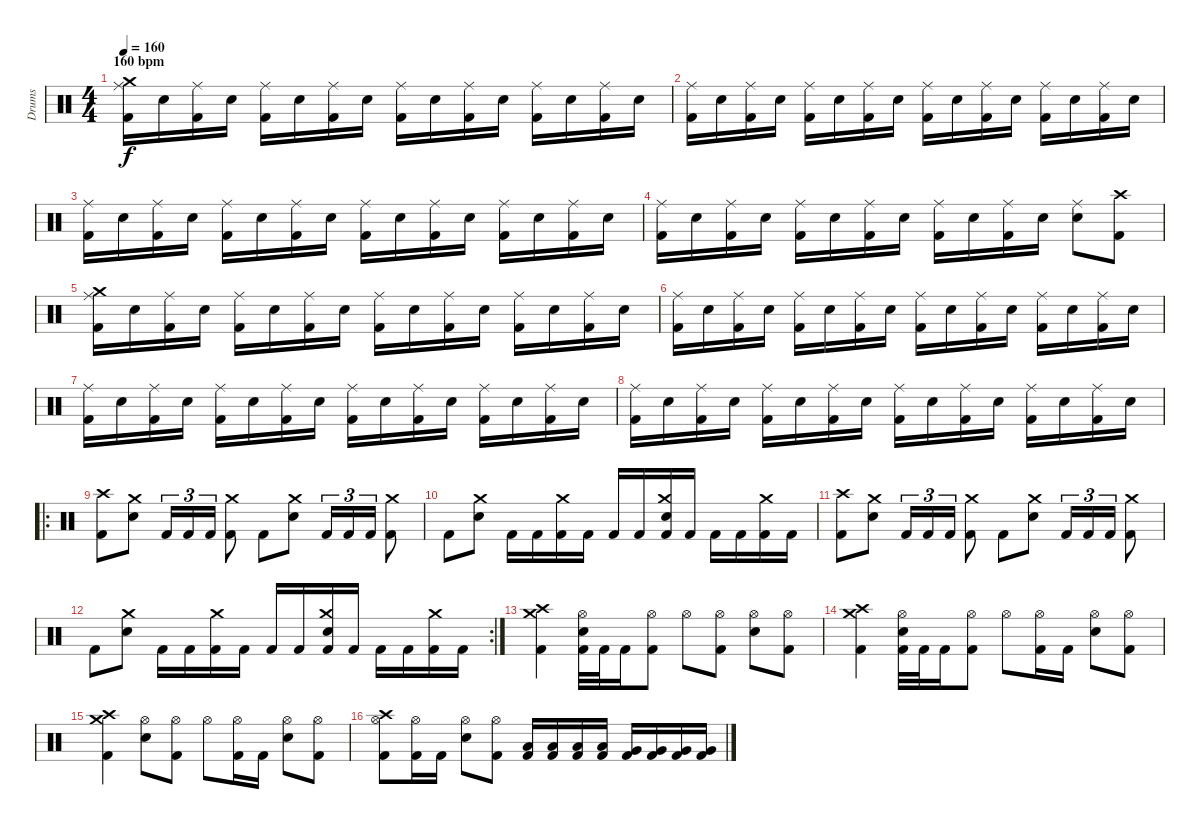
\track ("Drums" "Drums") {instrument percussion}
\staff {score}
\articulation defaults
\ts (4 4)
\section ("" "160 bpm")
\tempo 160
\clef neutral
\ks c
("Kick (hit) 2" "Ride (middle)" "Crash medium (hit)").16{dy f} "Electric Snare (hit)".16 ("Kick (hit) 2" "Ride (middle)").16 "Electric Snare (hit)".16 ("Kick (hit) 2" "Ride (middle)").16 "Electric Snare (hit)".16 ("Kick (hit) 2" "Ride (middle)").16 "Electric Snare (hit)".16 ("Kick (hit) 2" "Ride (middle)").16 "Electric Snare (hit)".16 ("Kick (hit) 2" "Ride (middle)").16 "Electric Snare (hit)".16 ("Kick (hit) 2" "Ride (middle)").16 "Electric Snare (hit)".16 ("Kick (hit) 2" "Ride (middle)").16 "Electric Snare (hit)".16 |
("Kick (hit) 2" "Ride (middle)").16 "Electric Snare (hit)".16 ("Kick (hit) 2" "Ride (middle)").16 "Electric Snare (hit)".16 ("Kick (hit) 2" "Ride (middle)").16 "Electric Snare (hit)".16 ("Kick (hit) 2" "Ride (middle)").16 "Electric Snare (hit)".16 ("Kick (hit) 2" "Ride (middle)").16 "Electric Snare (hit)".16 ("Kick (hit) 2" "Ride (middle)").16 "Electric Snare (hit)".16 ("Kick (hit) 2" "Ride (middle)").16 "Electric Snare (hit)".16 ("Kick (hit) 2" "Ride (middle)").16 "Electric Snare (hit)".16 |
("Kick (hit) 2" "Ride (middle)").16 "Electric Snare (hit)".16 ("Kick (hit) 2" "Ride (middle)").16 "Electric Snare (hit)".16 ("Kick (hit) 2" "Ride (middle)").16 "Electric Snare (hit)".16 ("Kick (hit) 2" "Ride (middle)").16 "Electric Snare (hit)".16 ("Kick (hit) 2" "Ride (middle)").16 "Electric Snare (hit)".16 ("Kick (hit) 2" "Ride (middle)").16 "Electric Snare (hit)".16 ("Kick (hit) 2" "Ride (middle)").16 "Electric Snare (hit)".16 ("Kick (hit) 2" "Ride (middle)").16 "Electric Snare (hit)".16 |
("Kick (hit) 2" "Ride (middle)").16 "Electric Snare (hit)".16 ("Kick (hit) 2" "Ride (middle)").16 "Electric Snare (hit)".16 ("Kick (hit) 2" "Ride (middle)").16 "Electric Snare (hit)".16 ("Kick (hit) 2" "Ride (middle)").16 "Electric Snare (hit)".16 ("Kick (hit) 2" "Ride (middle)").16 "Electric Snare (hit)".16 ("Kick (hit) 2" "Ride (middle)").16 "Electric Snare (hit)".16 ("Electric Snare (hit)" "Ride (middle)").8 ("Kick (hit) 2" "Crash high (hit)").8 |
("Kick (hit) 2" "Ride (middle)" "Crash medium (hit)").16 "Electric Snare (hit)".16 ("Kick (hit) 2" "Ride (middle)").16 "Electric Snare (hit)".16 ("Kick (hit) 2" "Ride (middle)").16 "Electric Snare (hit)".16 ("Kick (hit) 2" "Ride (middle)").16 "Electric Snare (hit)".16 ("Kick (hit) 2" "Ride (middle)").16 "Electric Snare (hit)".16 ("Kick (hit) 2" "Ride (middle)").16 "Electric Snare (hit)".16 ("Kick (hit) 2" "Ride (middle)").16 "Electric Snare (hit)".16 ("Kick (hit) 2" "Ride (middle)").16 "Electric Snare (hit)".16 |
("Kick (hit) 2" "Ride (middle)").16 "Electric Snare (hit)".16 ("Kick (hit) 2" "Ride (middle)").16 "Electric Snare (hit)".16 ("Kick (hit) 2" "Ride (middle)").16 "Electric Snare (hit)".16 ("Kick (hit) 2" "Ride (middle)").16 "Electric Snare (hit)".16 ("Kick (hit) 2" "Ride (middle)").16 "Electric Snare (hit)".16 ("Kick (hit) 2" "Ride (middle)").16 "Electric Snare (hit)".16 ("Kick (hit) 2" "Ride (middle)").16 "Electric Snare (hit)".16 ("Kick (hit) 2" "Ride (middle)").16 "Electric Snare (hit)".16 |
("Kick (hit) 2" "Ride (middle)").16 "Electric Snare (hit)".16 ("Kick (hit) 2" "Ride (middle)").16 "Electric Snare (hit)".16 ("Kick (hit) 2" "Ride (middle)").16 "Electric Snare (hit)".16 ("Kick (hit) 2" "Ride (middle)").16 "Electric Snare (hit)".16 ("Kick (hit) 2" "Ride (middle)").16 "Electric Snare (hit)".16 ("Kick (hit) 2" "Ride (middle)").16 "Electric Snare (hit)".16 ("Kick (hit) 2" "Ride (middle)").16 "Electric Snare (hit)".16 ("Kick (hit) 2" "Ride (middle)").16 "Electric Snare (hit)".16 |
("Kick (hit) 2" "Ride (middle)").16 "Electric Snare (hit)".16 ("Kick (hit) 2" "Ride (middle)").16 "Electric Snare (hit)".16 ("Kick (hit) 2" "Ride (middle)").16 "Electric Snare (hit)".16 ("Kick (hit) 2" "Ride (middle)").16 "Electric Snare (hit)".16 ("Kick (hit) 2" "Ride (middle)").16 "Electric Snare (hit)".16 ("Kick (hit) 2" "Ride (middle)").16 "Electric Snare (hit)".16 ("Kick (hit) 2" "Ride (middle)").16 "Electric Snare (hit)".16 ("Kick (hit) 2" "Ride (middle)").16 "Electric Snare (hit)".16 |
\ro
("Kick (hit) 2" "Crash high (hit)").8 ("Electric Snare (hit)" "Crash medium (hit)").8 "Kick (hit) 2".16{tu (3 2)} "Kick (hit) 2".16{tu (3 2)} "Kick (hit) 2".16{tu (3 2)} ("Kick (hit) 2" "Crash medium (hit)").8 "Kick (hit) 2".8 ("Electric Snare (hit)" "Crash medium (hit)").8 "Kick (hit) 2".16{tu (3 2)} "Kick (hit) 2".16{tu (3 2)} "Kick (hit) 2".16{tu (3 2)} ("Kick (hit) 2" "Crash medium (hit)").8 |
"Kick (hit) 2".8 ("Electric Snare (hit)" "Crash medium (hit)").8 "Kick (hit) 2".16 "Kick (hit) 2".16 ("Kick (hit) 2" "Crash medium (hit)").16 "Kick (hit) 2".16 "Kick (hit) 2".16 "Kick (hit) 2".16 ("Kick (hit) 2" "Electric Snare (hit)" "Crash medium (hit)").16 "Kick (hit) 2".16 "Kick (hit) 2".16 "Kick (hit) 2".16 ("Kick (hit) 2" "Crash medium (hit)").16 "Kick (hit) 2".16 |
("Kick (hit) 2" "Crash high (hit)").8 ("Electric Snare (hit)" "Crash medium (hit)").8 "Kick (hit) 2".16{tu (3 2)} "Kick (hit) 2".16{tu (3 2)} "Kick (hit) 2".16{tu (3 2)} ("Kick (hit) 2" "Crash medium (hit)").8 "Kick (hit) 2".8 ("Electric Snare (hit)" "Crash medium (hit)").8 "Kick (hit) 2".16{tu (3 2)} "Kick (hit) 2".16{tu (3 2)} "Kick (hit) 2".16{tu (3 2)} ("Kick (hit) 2" "Crash medium (hit)").8 |
\rc 2 "Kick (hit) 2".8
("Electric Snare (hit)" "Crash medium (hit)").8 "Kick (hit) 2".16 "Kick (hit) 2".16 ("Kick (hit) 2" "Crash medium (hit)").16 "Kick (hit) 2".16 "Kick (hit) 2".16 "Kick (hit) 2".16 ("Kick (hit) 2" "Electric Snare (hit)" "Crash medium (hit)").16 "Kick (hit) 2".16 "Kick (hit) 2".16 "Kick (hit) 2".16 ("Kick (hit) 2" "Crash medium (hit)").16 "Kick (hit) 2".16 |
("Kick (hit) 2" "Crash medium (hit)" "Crash high (hit)").4 ("Kick (hit) 2" "Electric Snare (hit)" "Hi-Hat (open)").32 "Kick (hit) 2".32 "Kick (hit) 2".16 ("Kick (hit) 2" "Hi-Hat (open)").8 "Hi-Hat (open)".8 ("Kick (hit) 2" "Hi-Hat (open)").8 ("Electric Snare (hit)" "Hi-Hat (open)").8 ("Kick (hit) 2" "Hi-Hat (open)").8 |
("Kick (hit) 2" "Crash medium (hit)" "Crash high (hit)").4 ("Kick (hit) 2" "Electric Snare (hit)" "Hi-Hat (open)").32 "Kick (hit) 2".32 "Kick (hit) 2".16 ("Kick (hit) 2" "Hi-Hat (open)").8 "Hi-Hat (open)".8 ("Kick (hit) 2" "Hi-Hat (open)").16 "Kick (hit) 2".16 ("Electric Snare (hit)" "Hi-Hat (open)").8 ("Kick (hit) 2" "Hi-Hat (open)").8 |
("Kick (hit) 2" "Crash medium (hit)" "Crash high (hit)").4 ("Electric Snare (hit)" "Hi-Hat (open)").8 ("Kick (hit) 2" "Hi-Hat (open)").8 "Hi-Hat (open)".8 ("Kick (hit) 2" "Hi-Hat (open)").16 "Kick (hit) 2".16 ("Electric Snare (hit)" "Hi-Hat (open)").8 ("Kick (hit) 2" "Hi-Hat (open)").8 |
("Kick (hit) 2" "Hi-Hat (open)" "Crash high (hit)").8 ("Kick (hit) 2" "Hi-Hat (open)").16 "Kick (hit) 2".16 ("Electric Snare (hit)" "Hi-Hat (open)").8 ("Kick (hit) 2" "Hi-Hat (open)").8 ("Kick (hit) 2" "Low Tom (hit)").16 ("Kick (hit) 2" "Low Tom (hit)").16 ("Kick (hit) 2" "Low Tom (hit)").16 ("Kick (hit) 2" "Low Tom (hit)").16 ("Kick (hit) 2" "Very Low Tom (hit)").16 ("Kick (hit) 2" "Very Low Tom (hit)").16 ("Kick (hit) 2" "Very Low Tom (hit)").16 ("Kick (hit) 2" "Very Low Tom (hit)").16
